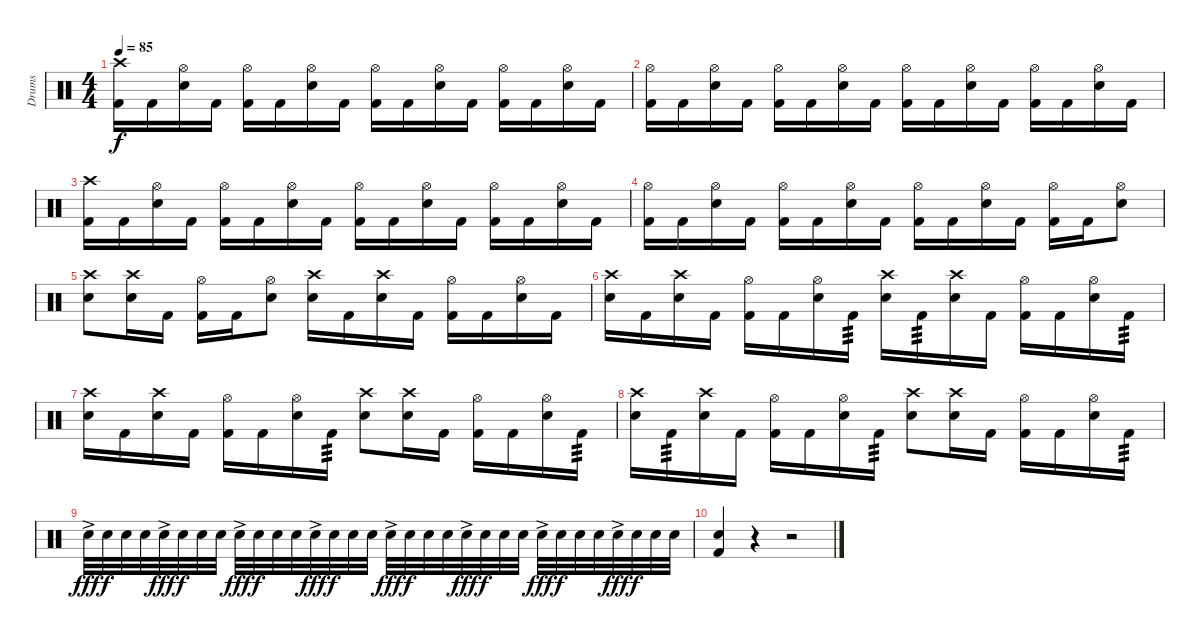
\track ("Drums" "Drums") {instrument percussion}
\staff {score}
\articulation defaults
\ts (4 4)
\tempo 85
\clef neutral
\ks c
("Crash high (hit)" "Kick (hit) 2").16{dy f} "Kick (hit) 2".16 ("Hi-Hat (open)" "Electric Snare (hit)").16 "Kick (hit) 2".16 ("Hi-Hat (open)" "Kick (hit) 2").16 "Kick (hit) 2".16 ("Hi-Hat (open)" "Electric Snare (hit)").16 "Kick (hit) 2".16 ("Hi-Hat (open)" "Kick (hit) 2").16 "Kick (hit) 2".16 ("Hi-Hat (open)" "Electric Snare (hit)").16 "Kick (hit) 2".16 ("Hi-Hat (open)" "Kick (hit) 2").16 "Kick (hit) 2".16 ("Hi-Hat (open)" "Electric Snare (hit)").16 "Kick (hit) 2".16 |
("Hi-Hat (open)" "Kick (hit) 2").16 "Kick (hit) 2".16 ("Hi-Hat (open)" "Electric Snare (hit)").16 "Kick (hit) 2".16 ("Hi-Hat (open)" "Kick (hit) 2").16 "Kick (hit) 2".16 ("Hi-Hat (open)" "Electric Snare (hit)").16 "Kick (hit) 2".16 ("Hi-Hat (open)" "Kick (hit) 2").16 "Kick (hit) 2".16 ("Hi-Hat (open)" "Electric Snare (hit)").16 "Kick (hit) 2".16 ("Hi-Hat (open)" "Kick (hit) 2").16 "Kick (hit) 2".16 ("Hi-Hat (open)" "Electric Snare (hit)").16 "Kick (hit) 2".16 |
("Crash high (hit)" "Kick (hit) 2").16 "Kick (hit) 2".16 ("Hi-Hat (open)" "Electric Snare (hit)").16 "Kick (hit) 2".16 ("Hi-Hat (open)" "Kick (hit) 2").16 "Kick (hit) 2".16 ("Hi-Hat (open)" "Electric Snare (hit)").16 "Kick (hit) 2".16 ("Hi-Hat (open)" "Kick (hit) 2").16 "Kick (hit) 2".16 ("Hi-Hat (open)" "Electric Snare (hit)").16 "Kick (hit) 2".16 ("Hi-Hat (open)" "Kick (hit) 2").16 "Kick (hit) 2".16 ("Hi-Hat (open)" "Electric Snare (hit)").16 "Kick (hit) 2".16 |
("Hi-Hat (open)" "Kick (hit) 2").16 "Kick (hit) 2".16 ("Hi-Hat (open)" "Electric Snare (hit)").16 "Kick (hit) 2".16 ("Hi-Hat (open)" "Kick (hit) 2").16 "Kick (hit) 2".16 ("Hi-Hat (open)" "Electric Snare (hit)").16 "Kick (hit) 2".16 ("Hi-Hat (open)" "Kick (hit) 2").16 "Kick (hit) 2".16 ("Hi-Hat (open)" "Electric Snare (hit)").16 "Kick (hit) 2".16 ("Hi-Hat (open)" "Kick (hit) 2").16 "Kick (hit) 2".16 ("Hi-Hat (open)" "Electric Snare (hit)").8 |
("Crash high (hit)" "Electric Snare (hit)").8 ("Crash high (hit)" "Electric Snare (hit)").16 "Kick (hit) 2".16 ("Hi-Hat (open)" "Kick (hit) 2").16 "Kick (hit) 2".16 ("Hi-Hat (open)" "Electric Snare (hit)").8 ("Crash high (hit)" "Electric Snare (hit)").16 "Kick (hit) 2".16 ("Crash high (hit)" "Electric Snare (hit)").16 "Kick (hit) 2".16 ("Hi-Hat (open)" "Kick (hit) 2").16 "Kick (hit) 2".16 ("Hi-Hat (open)" "Electric Snare (hit)").16 "Kick (hit) 2".16 |
("Crash high (hit)" "Electric Snare (hit)").16 "Kick (hit) 2".16 ("Crash high (hit)" "Electric Snare (hit)").16 "Kick (hit) 2".16 ("Hi-Hat (open)" "Kick (hit) 2").16 "Kick (hit) 2".16 ("Hi-Hat (open)" "Electric Snare (hit)").16 "Kick (hit) 2".16{tp 3} ("Crash high (hit)" "Electric Snare (hit)").16 "Kick (hit) 2".16{tp 3} ("Crash high (hit)" "Electric Snare (hit)").16 "Kick (hit) 2".16 ("Hi-Hat (open)" "Kick (hit) 2").16 "Kick (hit) 2".16 ("Hi-Hat (open)" "Electric Snare (hit)").16 "Kick (hit) 2".16{tp 3} |
("Crash high (hit)" "Electric Snare (hit)").16 "Kick (hit) 2".16 ("Crash high (hit)" "Electric Snare (hit)").16 "Kick (hit) 2".16 ("Hi-Hat (open)" "Kick (hit) 2").16 "Kick (hit) 2".16 ("Hi-Hat (open)" "Electric Snare (hit)").16 "Kick (hit) 2".16{tp 3} ("Crash high (hit)" "Electric Snare (hit)").8 ("Crash high (hit)" "Electric Snare (hit)").16 "Kick (hit) 2".16 ("Hi-Hat (open)" "Kick (hit) 2").16 "Kick (hit) 2".16 ("Hi-Hat (open)" "Electric Snare (hit)").16 "Kick (hit) 2".16{tp 3} |
("Crash high (hit)" "Electric Snare (hit)").16 "Kick (hit) 2".16{tp 3} ("Crash high (hit)" "Electric Snare (hit)").16 "Kick (hit) 2".16 ("Hi-Hat (open)" "Kick (hit) 2").16 "Kick (hit) 2".16 ("Hi-Hat (open)" "Electric Snare (hit)").16 "Kick (hit) 2".16{tp 3} ("Crash high (hit)" "Electric Snare (hit)").8 ("Crash high (hit)" "Electric Snare (hit)").16 "Kick (hit) 2".16 ("Hi-Hat (open)" "Kick (hit) 2").16 "Kick (hit) 2".16 ("Hi-Hat (open)" "Electric Snare (hit)").16 "Kick (hit) 2".16{tp 3} |
"Electric Snare (hit)"{ac}.32{dy fff} "Electric Snare (hit)".32{dy f} "Electric Snare (hit)".32 "Electric Snare (hit)".32 "Electric Snare (hit)"{ac}.32{dy fff} "Electric Snare (hit)".32{dy f} "Electric Snare (hit)".32 "Electric Snare (hit)".32 "Electric Snare (hit)"{ac}.32{dy fff} "Electric Snare (hit)".32{dy f} "Electric Snare (hit)".32 "Electric Snare (hit)".32 "Electric Snare (hit)"{ac}.32{dy fff} "Electric Snare (hit)".32{dy f} "Electric Snare (hit)".32 "Electric Snare (hit)".32 "Electric Snare (hit)"{ac}.32{dy fff} "Electric Snare (hit)".32{dy f} "Electric Snare (hit)".32 "Electric Snare (hit)".32 "Electric Snare (hit)"{ac}.32{dy fff} "Electric Snare (hit)".32{dy f} "Electric Snare (hit)".32 "Electric Snare (hit)".32 "Electric Snare (hit)"{ac}.32{dy fff} "Electric Snare (hit)".32{dy f} "Electric Snare (hit)".32 "Electric Snare (hit)".32 "Electric Snare (hit)"{ac}.32{dy fff} "Electric Snare (hit)".32{dy f} "Electric Snare (hit)".32 "Electric Snare (hit)".32 |
("Electric Snare (hit)" "Kick (hit) 2").4 r.4 r.2
